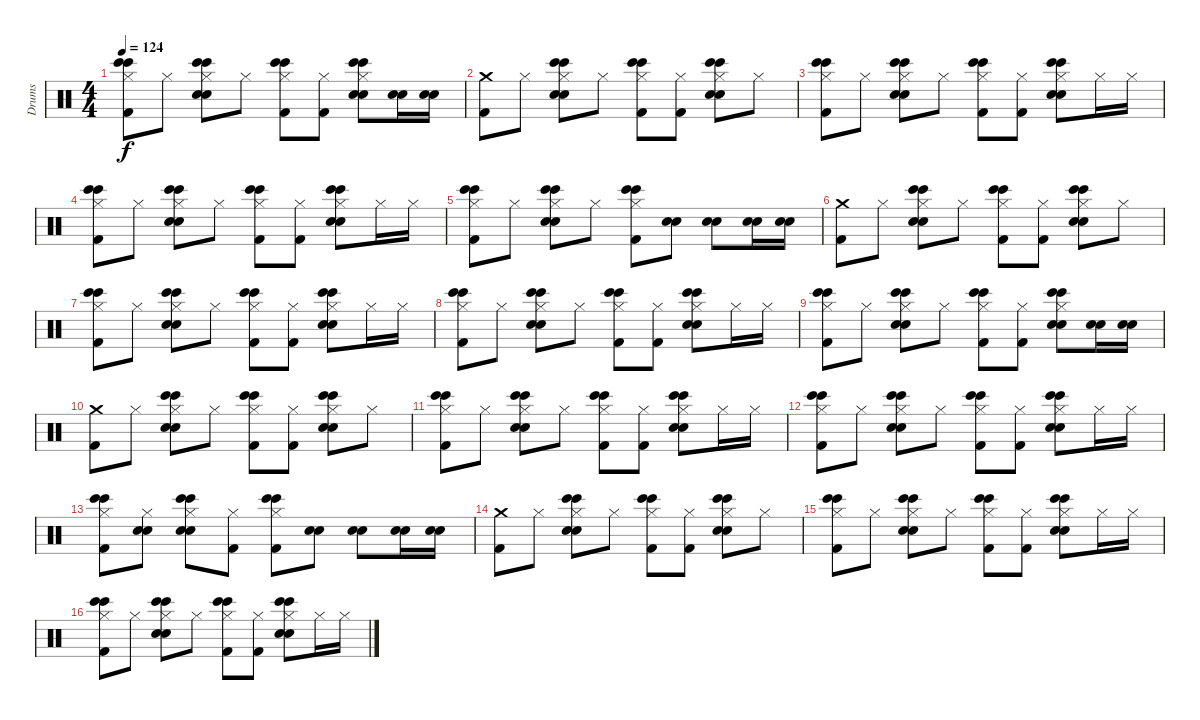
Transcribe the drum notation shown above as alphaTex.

\track ("Drums" "Drums") {instrument percussion}
\staff {score}
\articulation defaults
\ts (4 4)
\tempo 124
\clef neutral
\ks c
("Bongo High (hit)" "Bongo High (hit)" "Hi-Hat (closed)" "Kick (hit) 2").8{dy f} "Hi-Hat (closed)".8 ("Bongo High (hit)" "Electric Snare (hit)" "Snare (hit) 2" "Bongo High (hit)" "Hi-Hat (closed)").8 "Hi-Hat (closed)".8 ("Bongo High (hit)" "Kick (hit) 2" "Bongo High (hit)" "Hi-Hat (closed)").8 ("Kick (hit) 2" "Hi-Hat (closed)").8 ("Bongo High (hit)" "Electric Snare (hit)" "Snare (hit) 2" "Bongo High (hit)" "Hi-Hat (closed)").8 ("Snare (hit) 2" "Electric Snare (hit)").16 ("Snare (hit) 2" "Electric Snare (hit)").16 |
("Kick (hit) 2" "Crash medium (hit)").8 "Hi-Hat (closed)".8 ("Snare (hit) 2" "Bongo High (hit)" "Electric Snare (hit)" "Bongo High (hit)" "Hi-Hat (closed)").8 "Hi-Hat (closed)".8 ("Kick (hit) 2" "Bongo High (hit)" "Bongo High (hit)" "Hi-Hat (closed)").8 ("Kick (hit) 2" "Hi-Hat (closed)").8 ("Electric Snare (hit)" "Bongo High (hit)" "Snare (hit) 2" "Bongo High (hit)" "Hi-Hat (closed)").8 "Hi-Hat (closed)".8 |
("Bongo High (hit)" "Bongo High (hit)" "Hi-Hat (closed)" "Kick (hit) 2").8 "Hi-Hat (closed)".8 ("Bongo High (hit)" "Electric Snare (hit)" "Snare (hit) 2" "Bongo High (hit)" "Hi-Hat (closed)").8 "Hi-Hat (closed)".8 ("Bongo High (hit)" "Kick (hit) 2" "Bongo High (hit)" "Hi-Hat (closed)").8 ("Kick (hit) 2" "Hi-Hat (closed)").8 ("Bongo High (hit)" "Electric Snare (hit)" "Snare (hit) 2" "Bongo High (hit)" "Hi-Hat (closed)").8 "Hi-Hat (closed)".16 "Hi-Hat (closed)".16 |
("Bongo High (hit)" "Hi-Hat (closed)" "Bongo High (hit)" "Kick (hit) 2").8 "Hi-Hat (closed)".8 ("Electric Snare (hit)" "Bongo High (hit)" "Snare (hit) 2" "Bongo High (hit)" "Hi-Hat (closed)").8 "Hi-Hat (closed)".8 ("Bongo High (hit)" "Kick (hit) 2" "Bongo High (hit)" "Hi-Hat (closed)").8 ("Kick (hit) 2" "Hi-Hat (closed)").8 ("Electric Snare (hit)" "Bongo High (hit)" "Snare (hit) 2" "Bongo High (hit)" "Hi-Hat (closed)").8 "Hi-Hat (closed)".16 "Hi-Hat (closed)".16 |
("Bongo High (hit)" "Bongo High (hit)" "Hi-Hat (closed)" "Kick (hit) 2").8 "Hi-Hat (closed)".8 ("Bongo High (hit)" "Electric Snare (hit)" "Snare (hit) 2" "Bongo High (hit)" "Hi-Hat (closed)").8 "Hi-Hat (closed)".8 ("Bongo High (hit)" "Kick (hit) 2" "Bongo High (hit)" "Hi-Hat (closed)").8 ("Snare (hit) 2" "Electric Snare (hit)").8 ("Electric Snare (hit)" "Snare (hit) 2").8 ("Snare (hit) 2" "Electric Snare (hit)").16 ("Snare (hit) 2" "Electric Snare (hit)").16 |
("Kick (hit) 2" "Crash medium (hit)").8 "Hi-Hat (closed)".8 ("Snare (hit) 2" "Bongo High (hit)" "Electric Snare (hit)" "Bongo High (hit)" "Hi-Hat (closed)").8 "Hi-Hat (closed)".8 ("Kick (hit) 2" "Bongo High (hit)" "Bongo High (hit)" "Hi-Hat (closed)").8 ("Kick (hit) 2" "Hi-Hat (closed)").8 ("Electric Snare (hit)" "Bongo High (hit)" "Snare (hit) 2" "Bongo High (hit)" "Hi-Hat (closed)").8 "Hi-Hat (closed)".8 |
("Bongo High (hit)" "Bongo High (hit)" "Hi-Hat (closed)" "Kick (hit) 2").8 "Hi-Hat (closed)".8 ("Bongo High (hit)" "Electric Snare (hit)" "Snare (hit) 2" "Bongo High (hit)" "Hi-Hat (closed)").8 "Hi-Hat (closed)".8 ("Bongo High (hit)" "Kick (hit) 2" "Bongo High (hit)" "Hi-Hat (closed)").8 ("Kick (hit) 2" "Hi-Hat (closed)").8 ("Bongo High (hit)" "Electric Snare (hit)" "Snare (hit) 2" "Bongo High (hit)" "Hi-Hat (closed)").8 "Hi-Hat (closed)".16 "Hi-Hat (closed)".16 |
("Bongo High (hit)" "Hi-Hat (closed)" "Bongo High (hit)" "Kick (hit) 2").8 "Hi-Hat (closed)".8 ("Electric Snare (hit)" "Bongo High (hit)" "Snare (hit) 2" "Bongo High (hit)" "Hi-Hat (closed)").8 "Hi-Hat (closed)".8 ("Bongo High (hit)" "Kick (hit) 2" "Bongo High (hit)" "Hi-Hat (closed)").8 ("Kick (hit) 2" "Hi-Hat (closed)").8 ("Electric Snare (hit)" "Bongo High (hit)" "Snare (hit) 2" "Bongo High (hit)" "Hi-Hat (closed)").8 "Hi-Hat (closed)".16 "Hi-Hat (closed)".16 |
("Bongo High (hit)" "Bongo High (hit)" "Hi-Hat (closed)" "Kick (hit) 2").8 "Hi-Hat (closed)".8 ("Bongo High (hit)" "Electric Snare (hit)" "Snare (hit) 2" "Bongo High (hit)" "Hi-Hat (closed)").8 "Hi-Hat (closed)".8 ("Bongo High (hit)" "Kick (hit) 2" "Bongo High (hit)" "Hi-Hat (closed)").8 ("Kick (hit) 2" "Hi-Hat (closed)").8 ("Bongo High (hit)" "Electric Snare (hit)" "Snare (hit) 2" "Bongo High (hit)" "Hi-Hat (closed)").8 ("Snare (hit) 2" "Electric Snare (hit)").16 ("Snare (hit) 2" "Electric Snare (hit)").16 |
("Kick (hit) 2" "Crash medium (hit)").8 "Hi-Hat (closed)".8 ("Snare (hit) 2" "Bongo High (hit)" "Electric Snare (hit)" "Bongo High (hit)" "Hi-Hat (closed)").8 "Hi-Hat (closed)".8 ("Kick (hit) 2" "Bongo High (hit)" "Bongo High (hit)" "Hi-Hat (closed)").8 ("Kick (hit) 2" "Hi-Hat (closed)").8 ("Electric Snare (hit)" "Bongo High (hit)" "Snare (hit) 2" "Bongo High (hit)" "Hi-Hat (closed)").8 "Hi-Hat (closed)".8 |
("Bongo High (hit)" "Bongo High (hit)" "Hi-Hat (closed)" "Kick (hit) 2").8 "Hi-Hat (closed)".8 ("Bongo High (hit)" "Electric Snare (hit)" "Snare (hit) 2" "Bongo High (hit)" "Hi-Hat (closed)").8 "Hi-Hat (closed)".8 ("Bongo High (hit)" "Kick (hit) 2" "Bongo High (hit)" "Hi-Hat (closed)").8 ("Kick (hit) 2" "Hi-Hat (closed)").8 ("Bongo High (hit)" "Electric Snare (hit)" "Snare (hit) 2" "Bongo High (hit)" "Hi-Hat (closed)").8 "Hi-Hat (closed)".16 "Hi-Hat (closed)".16 |
("Bongo High (hit)" "Hi-Hat (closed)" "Bongo High (hit)" "Kick (hit) 2").8 "Hi-Hat (closed)".8 ("Electric Snare (hit)" "Bongo High (hit)" "Snare (hit) 2" "Bongo High (hit)" "Hi-Hat (closed)").8 "Hi-Hat (closed)".8 ("Bongo High (hit)" "Kick (hit) 2" "Bongo High (hit)" "Hi-Hat (closed)").8 ("Kick (hit) 2" "Hi-Hat (closed)").8 ("Electric Snare (hit)" "Bongo High (hit)" "Snare (hit) 2" "Bongo High (hit)" "Hi-Hat (closed)").8 "Hi-Hat (closed)".16 "Hi-Hat (closed)".16 |
("Bongo High (hit)" "Bongo High (hit)" "Hi-Hat (closed)" "Kick (hit) 2").8 ("Electric Snare (hit)" "Snare (hit) 2" "Hi-Hat (closed)").8 ("Bongo High (hit)" "Electric Snare (hit)" "Snare (hit) 2" "Bongo High (hit)" "Hi-Hat (closed)").8 ("Kick (hit) 2" "Hi-Hat (closed)").8 ("Bongo High (hit)" "Kick (hit) 2" "Bongo High (hit)" "Hi-Hat (closed)").8 ("Snare (hit) 2" "Electric Snare (hit)").8 ("Electric Snare (hit)" "Snare (hit) 2").8 ("Snare (hit) 2" "Electric Snare (hit)").16 ("Snare (hit) 2" "Electric Snare (hit)").16 |
("Kick (hit) 2" "Crash medium (hit)").8 "Hi-Hat (closed)".8 ("Snare (hit) 2" "Bongo High (hit)" "Electric Snare (hit)" "Bongo High (hit)" "Hi-Hat (closed)").8 "Hi-Hat (closed)".8 ("Kick (hit) 2" "Bongo High (hit)" "Bongo High (hit)" "Hi-Hat (closed)").8 ("Kick (hit) 2" "Hi-Hat (closed)").8 ("Electric Snare (hit)" "Bongo High (hit)" "Snare (hit) 2" "Bongo High (hit)" "Hi-Hat (closed)").8 "Hi-Hat (closed)".8 |
("Bongo High (hit)" "Bongo High (hit)" "Hi-Hat (closed)" "Kick (hit) 2").8 "Hi-Hat (closed)".8 ("Bongo High (hit)" "Electric Snare (hit)" "Snare (hit) 2" "Bongo High (hit)" "Hi-Hat (closed)").8 "Hi-Hat (closed)".8 ("Bongo High (hit)" "Kick (hit) 2" "Bongo High (hit)" "Hi-Hat (closed)").8 ("Kick (hit) 2" "Hi-Hat (closed)").8 ("Bongo High (hit)" "Electric Snare (hit)" "Snare (hit) 2" "Bongo High (hit)" "Hi-Hat (closed)").8 "Hi-Hat (closed)".16 "Hi-Hat (closed)".16 |
("Bongo High (hit)" "Hi-Hat (closed)" "Bongo High (hit)" "Kick (hit) 2").8 "Hi-Hat (closed)".8 ("Electric Snare (hit)" "Bongo High (hit)" "Snare (hit) 2" "Bongo High (hit)" "Hi-Hat (closed)").8 "Hi-Hat (closed)".8 ("Bongo High (hit)" "Kick (hit) 2" "Bongo High (hit)" "Hi-Hat (closed)").8 ("Kick (hit) 2" "Hi-Hat (closed)").8 ("Electric Snare (hit)" "Bongo High (hit)" "Snare (hit) 2" "Bongo High (hit)" "Hi-Hat (closed)").8 "Hi-Hat (closed)".16 "Hi-Hat (closed)".16
